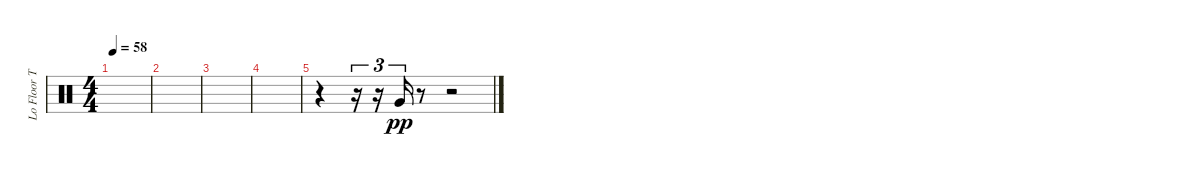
\track ("Lo Floor Tom" "Lo Floor T") {instrument percussion}
\staff {score}
\articulation defaults
\ts (4 4)
\tempo 58
\clef neutral
\ks c
|
|
|
|
r.4 r.16{tu (3 2)} r.16{tu (3 2)} "Very Low Tom (hit)".16{tu (3 2) dy pp} r.8 r.2
